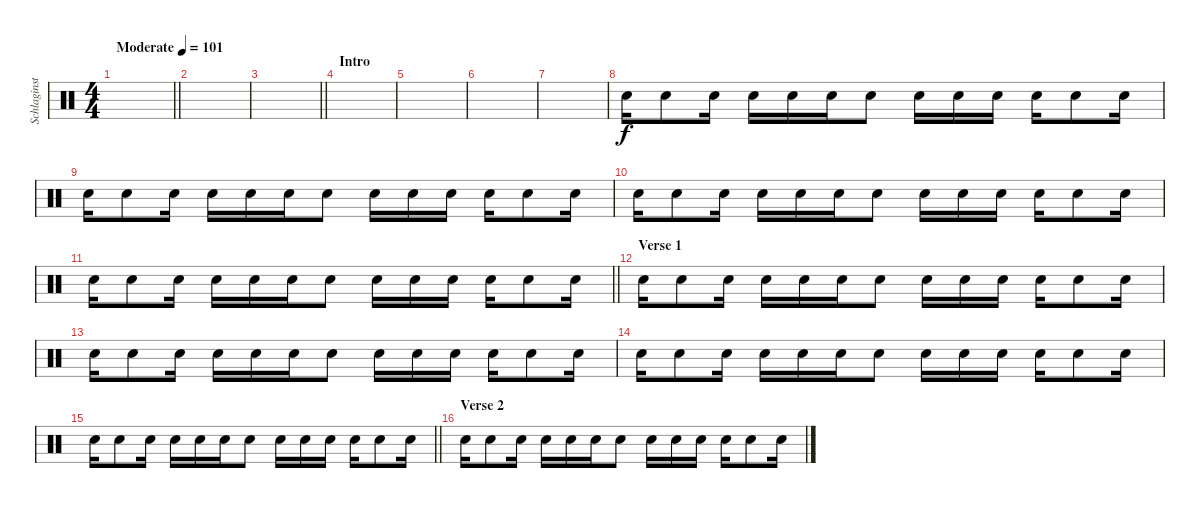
\track ("Schlaginstrumente - Auswahl" "Schlaginst") {instrument percussion}
\staff {score}
\articulation defaults
\ts (4 4)
\tempo (101 "Moderate")
\clef neutral
\barLineRight lightlight
\ks c
|
|
\barLineRight lightlight
|
\section ("" "Intro")
|
|
|
|
"Electric Snare (hit)".16{volume 4} "Electric Snare (hit)".8 "Electric Snare (hit)".16 "Electric Snare (hit)".16 "Electric Snare (hit)".16 "Electric Snare (hit)".16 "Electric Snare (hit)".8 "Electric Snare (hit)".16 "Electric Snare (hit)".16 "Electric Snare (hit)".16 "Electric Snare (hit)".16 "Electric Snare (hit)".8 "Electric Snare (hit)".16 |
"Electric Snare (hit)".16 "Electric Snare (hit)".8 "Electric Snare (hit)".16 "Electric Snare (hit)".16 "Electric Snare (hit)".16 "Electric Snare (hit)".16 "Electric Snare (hit)".8 "Electric Snare (hit)".16 "Electric Snare (hit)".16 "Electric Snare (hit)".16 "Electric Snare (hit)".16 "Electric Snare (hit)".8 "Electric Snare (hit)".16 |
"Electric Snare (hit)".16 "Electric Snare (hit)".8 "Electric Snare (hit)".16 "Electric Snare (hit)".16 "Electric Snare (hit)".16 "Electric Snare (hit)".16 "Electric Snare (hit)".8 "Electric Snare (hit)".16 "Electric Snare (hit)".16 "Electric Snare (hit)".16 "Electric Snare (hit)".16 "Electric Snare (hit)".8 "Electric Snare (hit)".16 |
\barLineRight lightlight "Electric Snare (hit)".16 "Electric Snare (hit)".8 "Electric Snare (hit)".16 "Electric Snare (hit)".16 "Electric Snare (hit)".16 "Electric Snare (hit)".16 "Electric Snare (hit)".8 "Electric Snare (hit)".16 "Electric Snare (hit)".16 "Electric Snare (hit)".16 "Electric Snare (hit)".16 "Electric Snare (hit)".8 "Electric Snare (hit)".16
|
\section ("" "Verse 1")
"Electric Snare (hit)".16{volume 4} "Electric Snare (hit)".8 "Electric Snare (hit)".16 "Electric Snare (hit)".16 "Electric Snare (hit)".16 "Electric Snare (hit)".16 "Electric Snare (hit)".8 "Electric Snare (hit)".16 "Electric Snare (hit)".16 "Electric Snare (hit)".16 "Electric Snare (hit)".16 "Electric Snare (hit)".8 "Electric Snare (hit)".16 |
"Electric Snare (hit)".16 "Electric Snare (hit)".8 "Electric Snare (hit)".16 "Electric Snare (hit)".16 "Electric Snare (hit)".16 "Electric Snare (hit)".16 "Electric Snare (hit)".8 "Electric Snare (hit)".16 "Electric Snare (hit)".16 "Electric Snare (hit)".16 "Electric Snare (hit)".16 "Electric Snare (hit)".8 "Electric Snare (hit)".16 |
"Electric Snare (hit)".16 "Electric Snare (hit)".8 "Electric Snare (hit)".16 "Electric Snare (hit)".16 "Electric Snare (hit)".16 "Electric Snare (hit)".16 "Electric Snare (hit)".8 "Electric Snare (hit)".16 "Electric Snare (hit)".16 "Electric Snare (hit)".16 "Electric Snare (hit)".16 "Electric Snare (hit)".8 "Electric Snare (hit)".16 |
\barLineRight lightlight "Electric Snare (hit)".16 "Electric Snare (hit)".8 "Electric Snare (hit)".16 "Electric Snare (hit)".16 "Electric Snare (hit)".16 "Electric Snare (hit)".16 "Electric Snare (hit)".8 "Electric Snare (hit)".16 "Electric Snare (hit)".16 "Electric Snare (hit)".16 "Electric Snare (hit)".16 "Electric Snare (hit)".8 "Electric Snare (hit)".16
|
\section ("" "Verse 2")
"Electric Snare (hit)".16{volume 4} "Electric Snare (hit)".8 "Electric Snare (hit)".16 "Electric Snare (hit)".16 "Electric Snare (hit)".16 "Electric Snare (hit)".16 "Electric Snare (hit)".8 "Electric Snare (hit)".16 "Electric Snare (hit)".16 "Electric Snare (hit)".16 "Electric Snare (hit)".16 "Electric Snare (hit)".8 "Electric Snare (hit)".16
